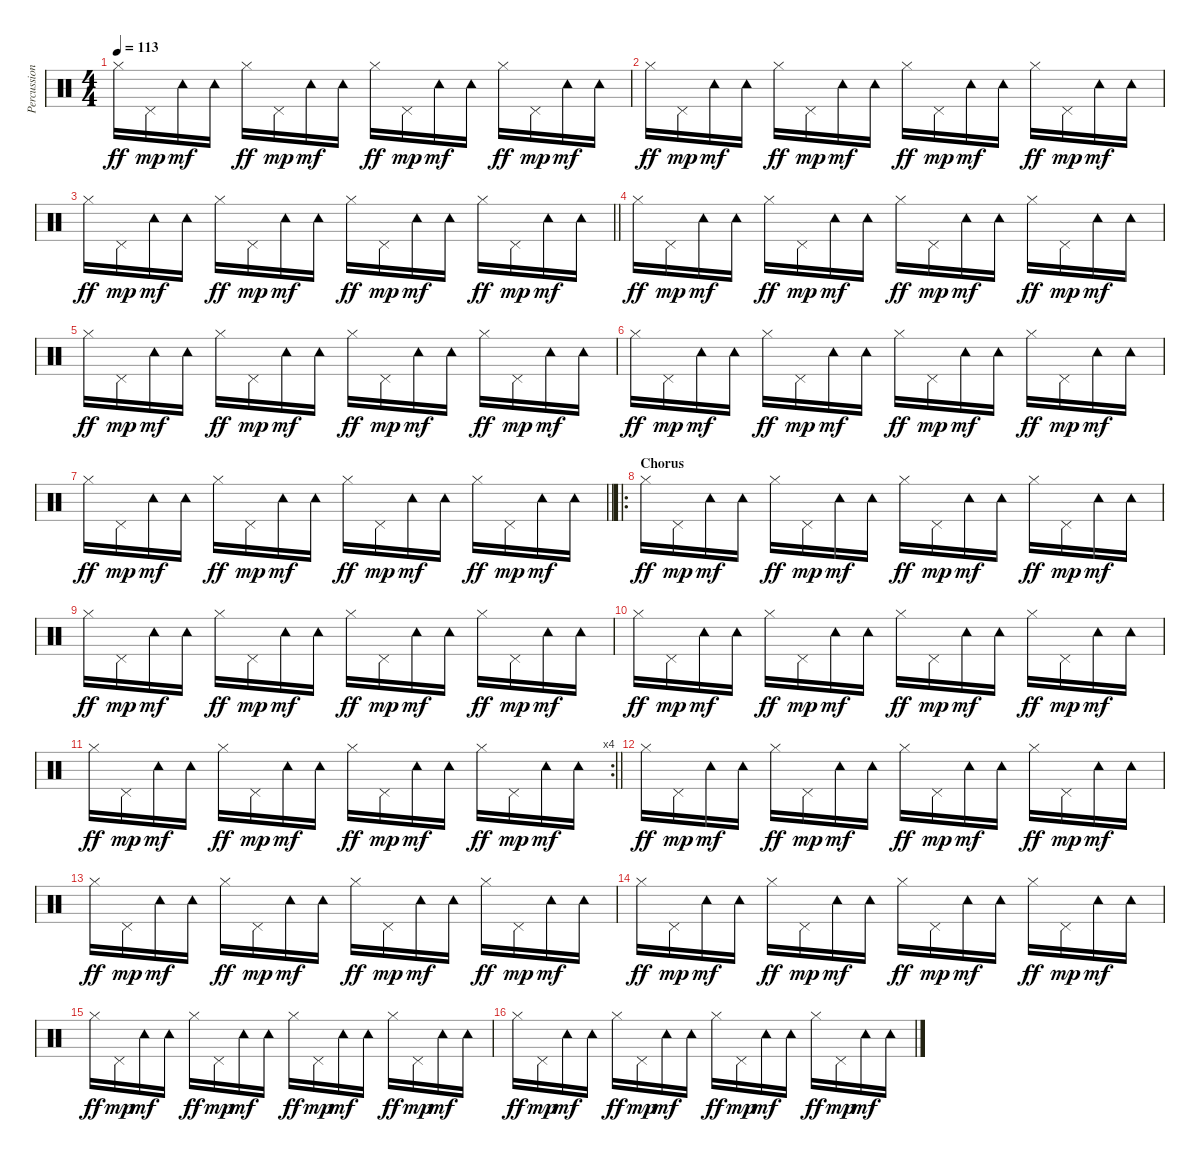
\track ("Percussion" "Percussion") {instrument percussion}
\staff {score}
\articulation defaults
\ts (4 4)
\tempo 113
\clef neutral
\ks c "Hi-Hat (closed)".16{dy ff} "Pedal Hi-Hat (hit)".16{dy mp} "Tambourine (hit)".16{dy mf} "Tambourine (hit)".16 "Hi-Hat (closed)".16{dy ff} "Pedal Hi-Hat (hit)".16{dy mp} "Tambourine (hit)".16{dy mf} "Tambourine (hit)".16 "Hi-Hat (closed)".16{dy ff} "Pedal Hi-Hat (hit)".16{dy mp} "Tambourine (hit)".16{dy mf} "Tambourine (hit)".16 "Hi-Hat (closed)".16{dy ff} "Pedal Hi-Hat (hit)".16{dy mp} "Tambourine (hit)".16{dy mf} "Tambourine (hit)".16
|
"Hi-Hat (closed)".16{dy ff} "Pedal Hi-Hat (hit)".16{dy mp} "Tambourine (hit)".16{dy mf} "Tambourine (hit)".16 "Hi-Hat (closed)".16{dy ff} "Pedal Hi-Hat (hit)".16{dy mp} "Tambourine (hit)".16{dy mf} "Tambourine (hit)".16 "Hi-Hat (closed)".16{dy ff} "Pedal Hi-Hat (hit)".16{dy mp} "Tambourine (hit)".16{dy mf} "Tambourine (hit)".16 "Hi-Hat (closed)".16{dy ff} "Pedal Hi-Hat (hit)".16{dy mp} "Tambourine (hit)".16{dy mf} "Tambourine (hit)".16 |
\barLineRight lightlight "Hi-Hat (closed)".16{dy ff} "Pedal Hi-Hat (hit)".16{dy mp} "Tambourine (hit)".16{dy mf} "Tambourine (hit)".16 "Hi-Hat (closed)".16{dy ff} "Pedal Hi-Hat (hit)".16{dy mp} "Tambourine (hit)".16{dy mf} "Tambourine (hit)".16 "Hi-Hat (closed)".16{dy ff} "Pedal Hi-Hat (hit)".16{dy mp} "Tambourine (hit)".16{dy mf} "Tambourine (hit)".16 "Hi-Hat (closed)".16{dy ff} "Pedal Hi-Hat (hit)".16{dy mp} "Tambourine (hit)".16{dy mf} "Tambourine (hit)".16
|
"Hi-Hat (closed)".16{dy ff} "Pedal Hi-Hat (hit)".16{dy mp} "Tambourine (hit)".16{dy mf} "Tambourine (hit)".16 "Hi-Hat (closed)".16{dy ff} "Pedal Hi-Hat (hit)".16{dy mp} "Tambourine (hit)".16{dy mf} "Tambourine (hit)".16 "Hi-Hat (closed)".16{dy ff} "Pedal Hi-Hat (hit)".16{dy mp} "Tambourine (hit)".16{dy mf} "Tambourine (hit)".16 "Hi-Hat (closed)".16{dy ff} "Pedal Hi-Hat (hit)".16{dy mp} "Tambourine (hit)".16{dy mf} "Tambourine (hit)".16 |
"Hi-Hat (closed)".16{dy ff} "Pedal Hi-Hat (hit)".16{dy mp} "Tambourine (hit)".16{dy mf} "Tambourine (hit)".16 "Hi-Hat (closed)".16{dy ff} "Pedal Hi-Hat (hit)".16{dy mp} "Tambourine (hit)".16{dy mf} "Tambourine (hit)".16 "Hi-Hat (closed)".16{dy ff} "Pedal Hi-Hat (hit)".16{dy mp} "Tambourine (hit)".16{dy mf} "Tambourine (hit)".16 "Hi-Hat (closed)".16{dy ff} "Pedal Hi-Hat (hit)".16{dy mp} "Tambourine (hit)".16{dy mf} "Tambourine (hit)".16 |
"Hi-Hat (closed)".16{dy ff} "Pedal Hi-Hat (hit)".16{dy mp} "Tambourine (hit)".16{dy mf} "Tambourine (hit)".16 "Hi-Hat (closed)".16{dy ff} "Pedal Hi-Hat (hit)".16{dy mp} "Tambourine (hit)".16{dy mf} "Tambourine (hit)".16 "Hi-Hat (closed)".16{dy ff} "Pedal Hi-Hat (hit)".16{dy mp} "Tambourine (hit)".16{dy mf} "Tambourine (hit)".16 "Hi-Hat (closed)".16{dy ff} "Pedal Hi-Hat (hit)".16{dy mp} "Tambourine (hit)".16{dy mf} "Tambourine (hit)".16 |
\barLineRight lightlight "Hi-Hat (closed)".16{dy ff} "Pedal Hi-Hat (hit)".16{dy mp} "Tambourine (hit)".16{dy mf} "Tambourine (hit)".16 "Hi-Hat (closed)".16{dy ff} "Pedal Hi-Hat (hit)".16{dy mp} "Tambourine (hit)".16{dy mf} "Tambourine (hit)".16 "Hi-Hat (closed)".16{dy ff} "Pedal Hi-Hat (hit)".16{dy mp} "Tambourine (hit)".16{dy mf} "Tambourine (hit)".16 "Hi-Hat (closed)".16{dy ff} "Pedal Hi-Hat (hit)".16{dy mp} "Tambourine (hit)".16{dy mf} "Tambourine (hit)".16
|
\ro
\section ("" "Chorus")
"Hi-Hat (closed)".16{dy ff} "Pedal Hi-Hat (hit)".16{dy mp} "Tambourine (hit)".16{dy mf} "Tambourine (hit)".16 "Hi-Hat (closed)".16{dy ff} "Pedal Hi-Hat (hit)".16{dy mp} "Tambourine (hit)".16{dy mf} "Tambourine (hit)".16 "Hi-Hat (closed)".16{dy ff} "Pedal Hi-Hat (hit)".16{dy mp} "Tambourine (hit)".16{dy mf} "Tambourine (hit)".16 "Hi-Hat (closed)".16{dy ff} "Pedal Hi-Hat (hit)".16{dy mp} "Tambourine (hit)".16{dy mf} "Tambourine (hit)".16 |
"Hi-Hat (closed)".16{dy ff} "Pedal Hi-Hat (hit)".16{dy mp} "Tambourine (hit)".16{dy mf} "Tambourine (hit)".16 "Hi-Hat (closed)".16{dy ff} "Pedal Hi-Hat (hit)".16{dy mp} "Tambourine (hit)".16{dy mf} "Tambourine (hit)".16 "Hi-Hat (closed)".16{dy ff} "Pedal Hi-Hat (hit)".16{dy mp} "Tambourine (hit)".16{dy mf} "Tambourine (hit)".16 "Hi-Hat (closed)".16{dy ff} "Pedal Hi-Hat (hit)".16{dy mp} "Tambourine (hit)".16{dy mf} "Tambourine (hit)".16 |
"Hi-Hat (closed)".16{dy ff} "Pedal Hi-Hat (hit)".16{dy mp} "Tambourine (hit)".16{dy mf} "Tambourine (hit)".16 "Hi-Hat (closed)".16{dy ff} "Pedal Hi-Hat (hit)".16{dy mp} "Tambourine (hit)".16{dy mf} "Tambourine (hit)".16 "Hi-Hat (closed)".16{dy ff} "Pedal Hi-Hat (hit)".16{dy mp} "Tambourine (hit)".16{dy mf} "Tambourine (hit)".16 "Hi-Hat (closed)".16{dy ff} "Pedal Hi-Hat (hit)".16{dy mp} "Tambourine (hit)".16{dy mf} "Tambourine (hit)".16 |
\rc 4
\barLineRight lightlight "Hi-Hat (closed)".16{dy ff} "Pedal Hi-Hat (hit)".16{dy mp} "Tambourine (hit)".16{dy mf} "Tambourine (hit)".16 "Hi-Hat (closed)".16{dy ff} "Pedal Hi-Hat (hit)".16{dy mp} "Tambourine (hit)".16{dy mf} "Tambourine (hit)".16 "Hi-Hat (closed)".16{dy ff} "Pedal Hi-Hat (hit)".16{dy mp} "Tambourine (hit)".16{dy mf} "Tambourine (hit)".16 "Hi-Hat (closed)".16{dy ff} "Pedal Hi-Hat (hit)".16{dy mp} "Tambourine (hit)".16{dy mf} "Tambourine (hit)".16
|
"Hi-Hat (closed)".16{dy ff} "Pedal Hi-Hat (hit)".16{dy mp} "Tambourine (hit)".16{dy mf} "Tambourine (hit)".16 "Hi-Hat (closed)".16{dy ff} "Pedal Hi-Hat (hit)".16{dy mp} "Tambourine (hit)".16{dy mf} "Tambourine (hit)".16 "Hi-Hat (closed)".16{dy ff} "Pedal Hi-Hat (hit)".16{dy mp} "Tambourine (hit)".16{dy mf} "Tambourine (hit)".16 "Hi-Hat (closed)".16{dy ff} "Pedal Hi-Hat (hit)".16{dy mp} "Tambourine (hit)".16{dy mf} "Tambourine (hit)".16 |
"Hi-Hat (closed)".16{dy ff} "Pedal Hi-Hat (hit)".16{dy mp} "Tambourine (hit)".16{dy mf} "Tambourine (hit)".16 "Hi-Hat (closed)".16{dy ff} "Pedal Hi-Hat (hit)".16{dy mp} "Tambourine (hit)".16{dy mf} "Tambourine (hit)".16 "Hi-Hat (closed)".16{dy ff} "Pedal Hi-Hat (hit)".16{dy mp} "Tambourine (hit)".16{dy mf} "Tambourine (hit)".16 "Hi-Hat (closed)".16{dy ff} "Pedal Hi-Hat (hit)".16{dy mp} "Tambourine (hit)".16{dy mf} "Tambourine (hit)".16 |
"Hi-Hat (closed)".16{dy ff} "Pedal Hi-Hat (hit)".16{dy mp} "Tambourine (hit)".16{dy mf} "Tambourine (hit)".16 "Hi-Hat (closed)".16{dy ff} "Pedal Hi-Hat (hit)".16{dy mp} "Tambourine (hit)".16{dy mf} "Tambourine (hit)".16 "Hi-Hat (closed)".16{dy ff} "Pedal Hi-Hat (hit)".16{dy mp} "Tambourine (hit)".16{dy mf} "Tambourine (hit)".16 "Hi-Hat (closed)".16{dy ff} "Pedal Hi-Hat (hit)".16{dy mp} "Tambourine (hit)".16{dy mf} "Tambourine (hit)".16 |
"Hi-Hat (closed)".16{dy ff} "Pedal Hi-Hat (hit)".16{dy mp} "Tambourine (hit)".16{dy mf} "Tambourine (hit)".16 "Hi-Hat (closed)".16{dy ff} "Pedal Hi-Hat (hit)".16{dy mp} "Tambourine (hit)".16{dy mf} "Tambourine (hit)".16 "Hi-Hat (closed)".16{dy ff} "Pedal Hi-Hat (hit)".16{dy mp} "Tambourine (hit)".16{dy mf} "Tambourine (hit)".16 "Hi-Hat (closed)".16{dy ff} "Pedal Hi-Hat (hit)".16{dy mp} "Tambourine (hit)".16{dy mf} "Tambourine (hit)".16 |
"Hi-Hat (closed)".16{dy ff} "Pedal Hi-Hat (hit)".16{dy mp} "Tambourine (hit)".16{dy mf} "Tambourine (hit)".16 "Hi-Hat (closed)".16{dy ff} "Pedal Hi-Hat (hit)".16{dy mp} "Tambourine (hit)".16{dy mf} "Tambourine (hit)".16 "Hi-Hat (closed)".16{dy ff} "Pedal Hi-Hat (hit)".16{dy mp} "Tambourine (hit)".16{dy mf} "Tambourine (hit)".16 "Hi-Hat (closed)".16{dy ff} "Pedal Hi-Hat (hit)".16{dy mp} "Tambourine (hit)".16{dy mf} "Tambourine (hit)".16
